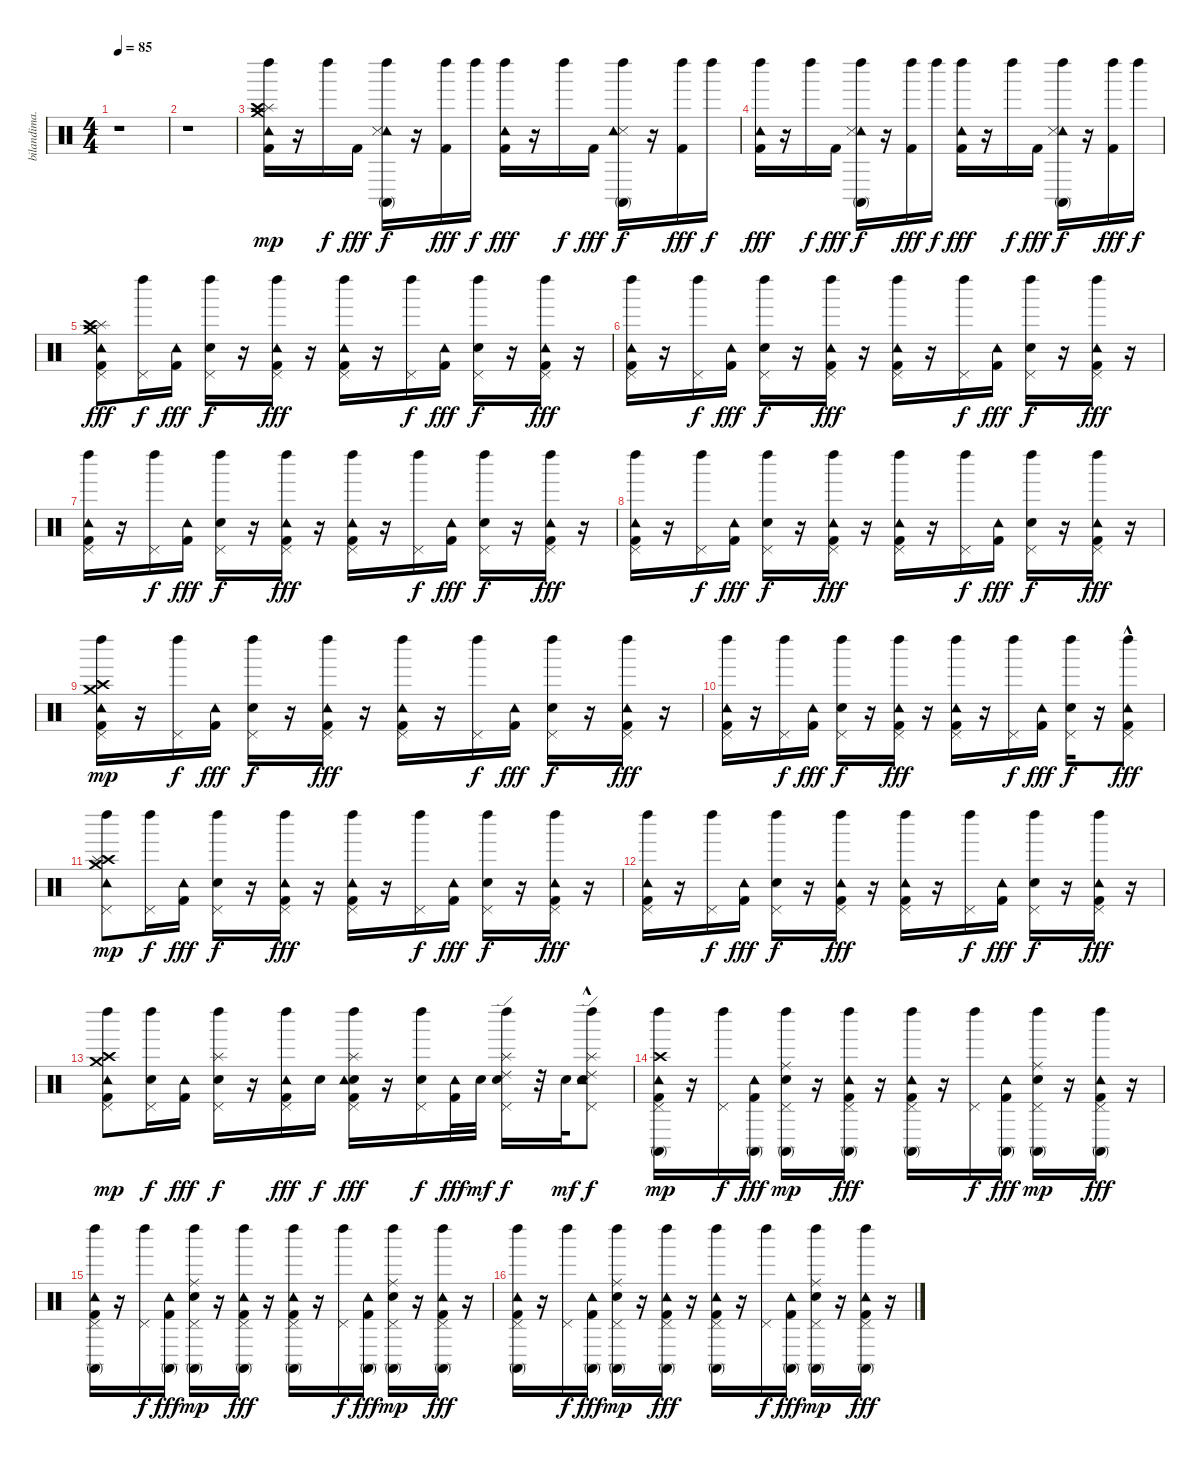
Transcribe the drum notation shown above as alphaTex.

\track ("bilandima.ru" "bilandima.") {instrument percussion}
\staff {score}
\articulation defaults
\ts (4 4)
\tempo 85
\clef neutral
\ks c
r.1{dy mp} |
r.1 |
("Kick (hit) 2" "Left Maraca (hit)" "Splash (hit)" "Crash medium (hit)" "Crash high (hit)" "Tambourine (hit)").16 r.16 "Left Maraca (hit)".16{dy f} "Kick (hit) 2".16{dy fff} ("Tambourine (hit)" "Snare (side stick) 3" "Left Maraca (hit)" "Conga high (mute)").16{dy f} r.16 ("Kick (hit) 2" "Left Maraca (hit)").16{dy fff} "Left Maraca (hit)".16{dy f} ("Tambourine (hit)" "Left Maraca (hit)" "Kick (hit) 2").16{dy fff} r.16 "Left Maraca (hit)".16{dy f} "Kick (hit) 2".16{dy fff} ("Conga high (mute)" "Left Maraca (hit)" "Snare (side stick) 3" "Tambourine (hit)").16{dy f} r.16 ("Kick (hit) 2" "Left Maraca (hit)").16{dy fff} "Left Maraca (hit)".16{dy f} |
("Tambourine (hit)" "Kick (hit) 2" "Left Maraca (hit)").16{dy fff} r.16 "Left Maraca (hit)".16{dy f} "Kick (hit) 2".16{dy fff} ("Tambourine (hit)" "Snare (side stick) 3" "Conga high (mute)" "Left Maraca (hit)").16{dy f} r.16 ("Kick (hit) 2" "Left Maraca (hit)").16{dy fff} "Left Maraca (hit)".16{dy f} ("Tambourine (hit)" "Kick (hit) 2" "Left Maraca (hit)").16{dy fff} r.16 "Left Maraca (hit)".16{dy f} "Kick (hit) 2".16{dy fff} ("Tambourine (hit)" "Snare (side stick) 3" "Conga high (mute)" "Left Maraca (hit)").16{dy f} r.16 ("Kick (hit) 2" "Left Maraca (hit)").16{dy fff} "Left Maraca (hit)".16{dy f} |
("Splash (hit)" "Crash medium (hit)" "Crash high (hit)" "Kick (hit) 2" "Pedal Hi-Hat (hit)" "Tambourine (hit)").8{dy fff} ("Left Maraca (hit)" "Pedal Hi-Hat (hit)").16{dy f} ("Kick (hit) 2" "Tambourine (hit)").16{dy fff} ("Left Maraca (hit)" "Pedal Hi-Hat (hit)" "Electric Snare (hit)").16{dy f} r.16 ("Kick (hit) 2" "Pedal Hi-Hat (hit)" "Tambourine (hit)" "Left Maraca (hit)").16{dy fff} r.16 ("Left Maraca (hit)" "Tambourine (hit)" "Pedal Hi-Hat (hit)" "Kick (hit) 2").16 r.16 ("Left Maraca (hit)" "Pedal Hi-Hat (hit)").16{dy f} ("Kick (hit) 2" "Tambourine (hit)").16{dy fff} ("Left Maraca (hit)" "Pedal Hi-Hat (hit)" "Electric Snare (hit)").16{dy f} r.16 ("Kick (hit) 2" "Pedal Hi-Hat (hit)" "Tambourine (hit)" "Left Maraca (hit)").16{dy fff} r.16 |
("Left Maraca (hit)" "Tambourine (hit)" "Pedal Hi-Hat (hit)" "Kick (hit) 2").16 r.16 ("Left Maraca (hit)" "Pedal Hi-Hat (hit)").16{dy f} ("Tambourine (hit)" "Kick (hit) 2").16{dy fff} ("Electric Snare (hit)" "Pedal Hi-Hat (hit)" "Left Maraca (hit)").16{dy f} r.16 ("Left Maraca (hit)" "Tambourine (hit)" "Pedal Hi-Hat (hit)" "Kick (hit) 2").16{dy fff} r.16 ("Left Maraca (hit)" "Tambourine (hit)" "Pedal Hi-Hat (hit)" "Kick (hit) 2").16 r.16 ("Pedal Hi-Hat (hit)" "Left Maraca (hit)").16{dy f} ("Tambourine (hit)" "Kick (hit) 2").16{dy fff} ("Electric Snare (hit)" "Pedal Hi-Hat (hit)" "Left Maraca (hit)").16{dy f} r.16 ("Left Maraca (hit)" "Tambourine (hit)" "Pedal Hi-Hat (hit)" "Kick (hit) 2").16{dy fff} r.16 |
("Left Maraca (hit)" "Tambourine (hit)" "Pedal Hi-Hat (hit)" "Kick (hit) 2").16 r.16 ("Pedal Hi-Hat (hit)" "Left Maraca (hit)").16{dy f} ("Tambourine (hit)" "Kick (hit) 2").16{dy fff} ("Left Maraca (hit)" "Pedal Hi-Hat (hit)" "Electric Snare (hit)").16{dy f} r.16 ("Left Maraca (hit)" "Tambourine (hit)" "Pedal Hi-Hat (hit)" "Kick (hit) 2").16{dy fff} r.16 ("Kick (hit) 2" "Pedal Hi-Hat (hit)" "Tambourine (hit)" "Left Maraca (hit)").16 r.16 ("Left Maraca (hit)" "Pedal Hi-Hat (hit)").16{dy f} ("Kick (hit) 2" "Tambourine (hit)").16{dy fff} ("Left Maraca (hit)" "Pedal Hi-Hat (hit)" "Electric Snare (hit)").16{dy f} r.16 ("Kick (hit) 2" "Pedal Hi-Hat (hit)" "Tambourine (hit)" "Left Maraca (hit)").16{dy fff} r.16 |
("Left Maraca (hit)" "Tambourine (hit)" "Pedal Hi-Hat (hit)" "Kick (hit) 2").16 r.16 ("Left Maraca (hit)" "Pedal Hi-Hat (hit)").16{dy f} ("Tambourine (hit)" "Kick (hit) 2").16{dy fff} ("Left Maraca (hit)" "Pedal Hi-Hat (hit)" "Electric Snare (hit)").16{dy f} r.16 ("Kick (hit) 2" "Pedal Hi-Hat (hit)" "Tambourine (hit)" "Left Maraca (hit)").16{dy fff} r.16 ("Left Maraca (hit)" "Tambourine (hit)" "Pedal Hi-Hat (hit)" "Kick (hit) 2").16 r.16 ("Left Maraca (hit)" "Pedal Hi-Hat (hit)").16{dy f} ("Tambourine (hit)" "Kick (hit) 2").16{dy fff} ("Electric Snare (hit)" "Pedal Hi-Hat (hit)" "Left Maraca (hit)").16{dy f} r.16 ("Left Maraca (hit)" "Tambourine (hit)" "Pedal Hi-Hat (hit)" "Kick (hit) 2").16{dy fff} r.16 |
("Left Maraca (hit)" "Tambourine (hit)" "Pedal Hi-Hat (hit)" "Kick (hit) 2" "Crash high (hit)" "Crash medium (hit)").16{dy mp} r.16 ("Pedal Hi-Hat (hit)" "Left Maraca (hit)").16{dy f} ("Tambourine (hit)" "Kick (hit) 2").16{dy fff} ("Left Maraca (hit)" "Pedal Hi-Hat (hit)" "Electric Snare (hit)").16{dy f} r.16 ("Left Maraca (hit)" "Tambourine (hit)" "Pedal Hi-Hat (hit)" "Kick (hit) 2").16{dy fff} r.16 ("Kick (hit) 2" "Pedal Hi-Hat (hit)" "Tambourine (hit)" "Left Maraca (hit)").16 r.16 ("Left Maraca (hit)" "Pedal Hi-Hat (hit)").16{dy f} ("Tambourine (hit)" "Kick (hit) 2").16{dy fff} ("Left Maraca (hit)" "Pedal Hi-Hat (hit)" "Electric Snare (hit)").16{dy f} r.16 ("Left Maraca (hit)" "Tambourine (hit)" "Pedal Hi-Hat (hit)" "Kick (hit) 2").16{dy fff} r.16 |
("Kick (hit) 2" "Pedal Hi-Hat (hit)" "Tambourine (hit)" "Left Maraca (hit)").16 r.16 ("Left Maraca (hit)" "Pedal Hi-Hat (hit)").16{dy f} ("Kick (hit) 2" "Tambourine (hit)").16{dy fff} ("Left Maraca (hit)" "Pedal Hi-Hat (hit)" "Electric Snare (hit)").16{dy f} r.16 ("Left Maraca (hit)" "Tambourine (hit)" "Pedal Hi-Hat (hit)" "Kick (hit) 2").16{dy fff} r.16 ("Left Maraca (hit)" "Tambourine (hit)" "Pedal Hi-Hat (hit)" "Kick (hit) 2").16 r.16 ("Left Maraca (hit)" "Pedal Hi-Hat (hit)").16{dy f} ("Tambourine (hit)" "Kick (hit) 2").16{dy fff} ("Electric Snare (hit)" "Pedal Hi-Hat (hit)" "Left Maraca (hit)").16{dy f} r.16 ("Left Maraca (hit)" "Tambourine (hit)" "Pedal Hi-Hat (hit)" "Kick (hit) 2"{hac}).8{dy fff} |
("Crash high (hit)" "Crash medium (hit)" "Splash (hit)" "Left Maraca (hit)" "Tambourine (hit)" "Pedal Hi-Hat (hit)").8{dy mp} ("Left Maraca (hit)" "Pedal Hi-Hat (hit)").16{dy f} ("Tambourine (hit)" "Kick (hit) 2").16{dy fff} ("Electric Snare (hit)" "Pedal Hi-Hat (hit)" "Left Maraca (hit)").16{dy f} r.16 ("Left Maraca (hit)" "Tambourine (hit)" "Pedal Hi-Hat (hit)" "Kick (hit) 2").16{dy fff} r.16 ("Left Maraca (hit)" "Tambourine (hit)" "Pedal Hi-Hat (hit)" "Kick (hit) 2").16 r.16 ("Pedal Hi-Hat (hit)" "Left Maraca (hit)").16{dy f} ("Tambourine (hit)" "Kick (hit) 2").16{dy fff} ("Left Maraca (hit)" "Pedal Hi-Hat (hit)" "Electric Snare (hit)").16{dy f} r.16 ("Left Maraca (hit)" "Tambourine (hit)" "Pedal Hi-Hat (hit)" "Kick (hit) 2").16{dy fff} r.16 |
("Kick (hit) 2" "Pedal Hi-Hat (hit)" "Tambourine (hit)" "Left Maraca (hit)").16 r.16 ("Pedal Hi-Hat (hit)" "Left Maraca (hit)").16{dy f} ("Kick (hit) 2" "Tambourine (hit)").16{dy fff} ("Left Maraca (hit)" "Pedal Hi-Hat (hit)" "Electric Snare (hit)").16{dy f} r.16 ("Left Maraca (hit)" "Tambourine (hit)" "Pedal Hi-Hat (hit)" "Kick (hit) 2").16{dy fff} r.16 ("Kick (hit) 2" "Pedal Hi-Hat (hit)" "Tambourine (hit)" "Left Maraca (hit)").16 r.16 ("Left Maraca (hit)" "Pedal Hi-Hat (hit)").16{dy f} ("Kick (hit) 2" "Tambourine (hit)").16{dy fff} ("Left Maraca (hit)" "Pedal Hi-Hat (hit)" "Electric Snare (hit)").16{dy f} r.16 ("Kick (hit) 2" "Pedal Hi-Hat (hit)" "Tambourine (hit)" "Left Maraca (hit)").16{dy fff} r.16 |
("Left Maraca (hit)" "Tambourine (hit)" "Pedal Hi-Hat (hit)" "Kick (hit) 2" "Crash high (hit)" "Crash medium (hit)").8{dy mp} ("Electric Snare (hit)" "Left Maraca (hit)" "Pedal Hi-Hat (hit)").16{dy f} ("Tambourine (hit)" "Kick (hit) 2").16{dy fff} ("Electric Snare (hit)" "Pedal Hi-Hat (hit)" "Left Maraca (hit)" "Splash (hit)").16{dy f} r.16 ("Kick (hit) 2" "Pedal Hi-Hat (hit)" "Tambourine (hit)" "Left Maraca (hit)").16{dy fff} "Electric Snare (hit)".16{dy f} ("Electric Snare (hit)" "Splash (hit)" "Left Maraca (hit)" "Tambourine (hit)" "Pedal Hi-Hat (hit)" "Kick (hit) 2").16{dy fff} r.16 ("Electric Snare (hit)" "Left Maraca (hit)" "Pedal Hi-Hat (hit)").16{dy f} ("Tambourine (hit)" "Kick (hit) 2").32{dy fff} "Electric Snare (hit)".32{dy mf} ("Pedal Hi-Hat (hit)" "Left Maraca (hit)" "Splash (hit)" "Electric Snare (hit)" "Ride (edge) 2").16{dy f} r.32 "Electric Snare (hit)".32{dy mf} ("Ride (edge) 2" "Splash (hit)"{hac} "Electric Snare (hit)" "Left Maraca (hit)" "Tambourine (hit)" "Pedal Hi-Hat (hit)").8{dy f} |
("Conga high (mute)" "Left Maraca (hit)" "Tambourine (hit)" "Pedal Hi-Hat (hit)" "Kick (hit) 2" "Crash high (hit)").16{dy mp} r.16 ("Pedal Hi-Hat (hit)" "Left Maraca (hit)").16{dy f} ("Conga high (mute)" "Tambourine (hit)" "Kick (hit) 2").16{dy fff} ("Ride (middle)" "Conga high (mute)" "Left Maraca (hit)" "Pedal Hi-Hat (hit)" "Electric Snare (hit)").16{dy mp} r.16 ("Conga high (mute)" "Left Maraca (hit)" "Tambourine (hit)" "Pedal Hi-Hat (hit)" "Kick (hit) 2").16{dy fff} r.16 ("Left Maraca (hit)" "Tambourine (hit)" "Pedal Hi-Hat (hit)" "Kick (hit) 2" "Conga high (mute)").16 r.16 ("Left Maraca (hit)" "Pedal Hi-Hat (hit)").16{dy f} ("Kick (hit) 2" "Tambourine (hit)" "Conga high (mute)").16{dy fff} ("Ride (middle)" "Conga high (mute)" "Left Maraca (hit)" "Pedal Hi-Hat (hit)" "Electric Snare (hit)").16{dy mp} r.16 ("Kick (hit) 2" "Pedal Hi-Hat (hit)" "Tambourine (hit)" "Left Maraca (hit)" "Conga high (mute)").16{dy fff} r.16 |
("Kick (hit) 2" "Pedal Hi-Hat (hit)" "Tambourine (hit)" "Left Maraca (hit)" "Conga high (mute)").16 r.16 ("Left Maraca (hit)" "Pedal Hi-Hat (hit)").16{dy f} ("Kick (hit) 2" "Tambourine (hit)" "Conga high (mute)").16{dy fff} ("Ride (middle)" "Left Maraca (hit)" "Pedal Hi-Hat (hit)" "Electric Snare (hit)" "Conga high (mute)").16{dy mp} r.16 ("Kick (hit) 2" "Pedal Hi-Hat (hit)" "Tambourine (hit)" "Left Maraca (hit)" "Conga high (mute)").16{dy fff} r.16 ("Left Maraca (hit)" "Tambourine (hit)" "Pedal Hi-Hat (hit)" "Kick (hit) 2" "Conga high (mute)").16 r.16 ("Left Maraca (hit)" "Pedal Hi-Hat (hit)").16{dy f} ("Conga high (mute)" "Tambourine (hit)" "Kick (hit) 2").16{dy fff} ("Electric Snare (hit)" "Pedal Hi-Hat (hit)" "Left Maraca (hit)" "Conga high (mute)" "Ride (middle)").16{dy mp} r.16 ("Kick (hit) 2" "Pedal Hi-Hat (hit)" "Tambourine (hit)" "Left Maraca (hit)" "Conga high (mute)").16{dy fff} r.16 |
("Conga high (mute)" "Left Maraca (hit)" "Tambourine (hit)" "Pedal Hi-Hat (hit)" "Kick (hit) 2").16 r.16 ("Pedal Hi-Hat (hit)" "Left Maraca (hit)").16{dy f} ("Tambourine (hit)" "Kick (hit) 2" "Conga high (mute)").16{dy fff} ("Ride (middle)" "Electric Snare (hit)" "Pedal Hi-Hat (hit)" "Left Maraca (hit)" "Conga high (mute)").16{dy mp} r.16 ("Conga high (mute)" "Left Maraca (hit)" "Tambourine (hit)" "Pedal Hi-Hat (hit)" "Kick (hit) 2").16{dy fff} r.16 ("Conga high (mute)" "Left Maraca (hit)" "Tambourine (hit)" "Pedal Hi-Hat (hit)" "Kick (hit) 2").16 r.16 ("Pedal Hi-Hat (hit)" "Left Maraca (hit)").16{dy f} ("Conga high (mute)" "Tambourine (hit)" "Kick (hit) 2").16{dy fff} ("Ride (middle)" "Conga high (mute)" "Left Maraca (hit)" "Pedal Hi-Hat (hit)" "Electric Snare (hit)").16{dy mp} r.16 ("Conga high (mute)" "Left Maraca (hit)" "Tambourine (hit)" "Pedal Hi-Hat (hit)" "Kick (hit) 2").16{dy fff} r.16
